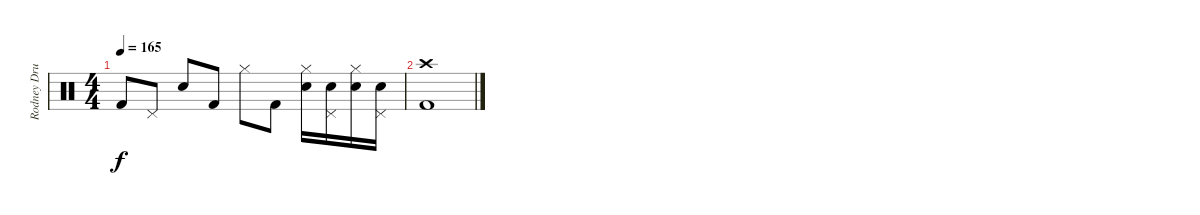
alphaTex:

\track ("Rodney Drums" "Rodney Dru") {instrument percussion}
\staff {score}
\articulation defaults
\ts (4 4)
\tempo 165
\clef neutral
\ks c "Kick (hit) 2".8{dy f} "Pedal Hi-Hat (hit)".8 "Electric Snare (hit)".8 "Kick (hit) 2".8 "Hi-Hat (closed)".8 "Kick (hit) 2".8
("Electric Snare (hit)" "Hi-Hat (closed)").16 ("Electric Snare (hit)" "Pedal Hi-Hat (hit)").16 ("Electric Snare (hit)" "Hi-Hat (closed)").16 ("Electric Snare (hit)" "Pedal Hi-Hat (hit)").16 |
("Crash high (hit)" "Kick (hit) 2").1
